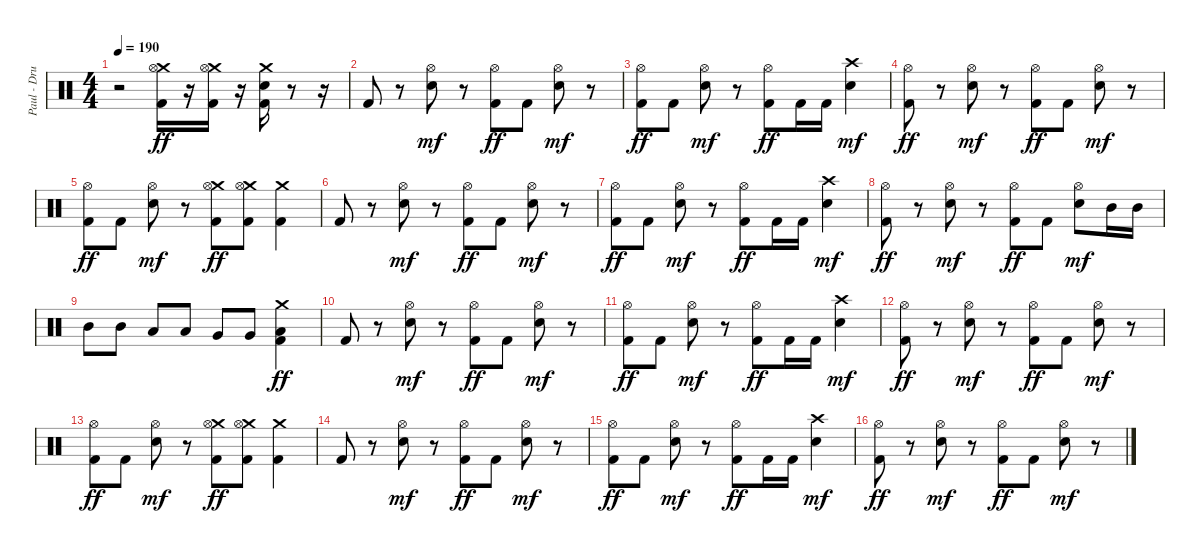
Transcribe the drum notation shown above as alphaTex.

\track ("Paul - Drums" "Paul - Dru") {instrument percussion}
\staff {score}
\articulation defaults
\ts (4 4)
\tempo 190
\clef neutral
\ks c
r.2{dy mf} ("Crash medium (hit)" "Hi-Hat (open)" "Kick (hit) 2").16{dy ff} r.16 ("Crash medium (hit)" "Hi-Hat (open)" "Kick (hit) 2").16 r.16 ("Crash medium (hit)" "Electric Snare (hit)" "Kick (hit) 2").16 r.8 r.16 |
"Kick (hit) 2".8 r.8 ("Hi-Hat (open)" "Electric Snare (hit)").8{dy mf} r.8 ("Hi-Hat (open)" "Kick (hit) 2").8{dy ff} "Kick (hit) 2".8 ("Hi-Hat (open)" "Electric Snare (hit)").8{dy mf} r.8 |
("Hi-Hat (open)" "Kick (hit) 2").8{dy ff} "Kick (hit) 2".8 ("Hi-Hat (open)" "Electric Snare (hit)").8{dy mf} r.8 ("Hi-Hat (open)" "Kick (hit) 2").8{dy ff} "Kick (hit) 2".16 "Kick (hit) 2".16 ("Crash high (hit)" "Electric Snare (hit)").4{dy mf} |
("Hi-Hat (open)" "Kick (hit) 2").8{dy ff} r.8 ("Hi-Hat (open)" "Electric Snare (hit)").8{dy mf} r.8 ("Hi-Hat (open)" "Kick (hit) 2").8{dy ff} "Kick (hit) 2".8 ("Hi-Hat (open)" "Electric Snare (hit)").8{dy mf} r.8 |
("Hi-Hat (open)" "Kick (hit) 2").8{dy ff} "Kick (hit) 2".8 ("Hi-Hat (open)" "Electric Snare (hit)").8{dy mf} r.8 ("Crash medium (hit)" "Hi-Hat (open)" "Kick (hit) 2").8{dy ff} ("Crash medium (hit)" "Hi-Hat (open)" "Kick (hit) 2").8 ("Crash medium (hit)" "Kick (hit) 2").4 |
"Kick (hit) 2".8 r.8 ("Hi-Hat (open)" "Electric Snare (hit)").8{dy mf} r.8 ("Hi-Hat (open)" "Kick (hit) 2").8{dy ff} "Kick (hit) 2".8 ("Hi-Hat (open)" "Electric Snare (hit)").8{dy mf} r.8 |
("Hi-Hat (open)" "Kick (hit) 2").8{dy ff} "Kick (hit) 2".8 ("Hi-Hat (open)" "Electric Snare (hit)").8{dy mf} r.8 ("Hi-Hat (open)" "Kick (hit) 2").8{dy ff} "Kick (hit) 2".16 "Kick (hit) 2".16 ("Crash high (hit)" "Electric Snare (hit)").4{dy mf} |
("Hi-Hat (open)" "Kick (hit) 2").8{dy ff} r.8 ("Hi-Hat (open)" "Electric Snare (hit)").8{dy mf} r.8 ("Hi-Hat (open)" "Kick (hit) 2").8{dy ff} "Kick (hit) 2".8 ("Hi-Hat (open)" "Electric Snare (hit)").8{dy mf} "Mid Tom (hit)".16 "Mid Tom (hit)".16 |
"Mid Tom (hit)".8 "Mid Tom (hit)".8 "Low Tom (hit)".8 "Low Tom (hit)".8 "Very Low Tom (hit)".8 "Very Low Tom (hit)".8 ("Crash medium (hit)" "Low Floor Tom (hit)" "Kick (hit) 2").4{dy ff} |
"Kick (hit) 2".8 r.8 ("Hi-Hat (open)" "Electric Snare (hit)").8{dy mf} r.8 ("Hi-Hat (open)" "Kick (hit) 2").8{dy ff} "Kick (hit) 2".8 ("Hi-Hat (open)" "Electric Snare (hit)").8{dy mf} r.8 |
("Hi-Hat (open)" "Kick (hit) 2").8{dy ff} "Kick (hit) 2".8 ("Hi-Hat (open)" "Electric Snare (hit)").8{dy mf} r.8 ("Hi-Hat (open)" "Kick (hit) 2").8{dy ff} "Kick (hit) 2".16 "Kick (hit) 2".16 ("Crash high (hit)" "Electric Snare (hit)").4{dy mf} |
("Hi-Hat (open)" "Kick (hit) 2").8{dy ff} r.8 ("Hi-Hat (open)" "Electric Snare (hit)").8{dy mf} r.8 ("Hi-Hat (open)" "Kick (hit) 2").8{dy ff} "Kick (hit) 2".8 ("Hi-Hat (open)" "Electric Snare (hit)").8{dy mf} r.8 |
("Hi-Hat (open)" "Kick (hit) 2").8{dy ff} "Kick (hit) 2".8 ("Hi-Hat (open)" "Electric Snare (hit)").8{dy mf} r.8 ("Crash medium (hit)" "Hi-Hat (open)" "Kick (hit) 2").8{dy ff} ("Crash medium (hit)" "Hi-Hat (open)" "Kick (hit) 2").8 ("Crash medium (hit)" "Kick (hit) 2").4 |
"Kick (hit) 2".8 r.8 ("Hi-Hat (open)" "Electric Snare (hit)").8{dy mf} r.8 ("Hi-Hat (open)" "Kick (hit) 2").8{dy ff} "Kick (hit) 2".8 ("Hi-Hat (open)" "Electric Snare (hit)").8{dy mf} r.8 |
("Hi-Hat (open)" "Kick (hit) 2").8{dy ff} "Kick (hit) 2".8 ("Hi-Hat (open)" "Electric Snare (hit)").8{dy mf} r.8 ("Hi-Hat (open)" "Kick (hit) 2").8{dy ff} "Kick (hit) 2".16 "Kick (hit) 2".16 ("Crash high (hit)" "Electric Snare (hit)").4{dy mf} |
("Hi-Hat (open)" "Kick (hit) 2").8{dy ff} r.8 ("Hi-Hat (open)" "Electric Snare (hit)").8{dy mf} r.8 ("Hi-Hat (open)" "Kick (hit) 2").8{dy ff} "Kick (hit) 2".8 ("Hi-Hat (open)" "Electric Snare (hit)").8{dy mf} r.8
